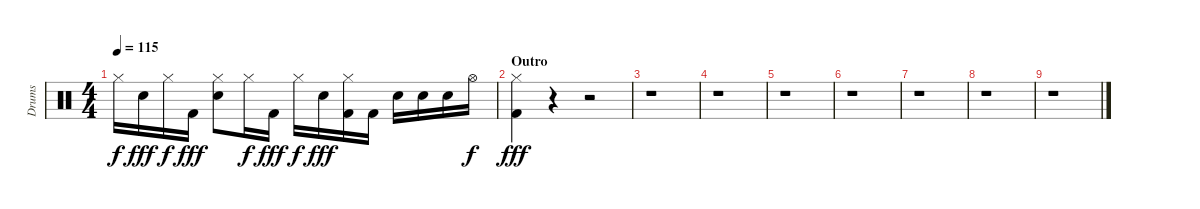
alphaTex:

\track ("Drums" "Drums") {instrument percussion}
\staff {score}
\articulation defaults
\ts (4 4)
\tempo 115
\clef neutral
\ks c "Hi-Hat (closed)".16{dy f} "Electric Snare (hit)".16{dy fff} "Hi-Hat (closed)".16{dy f} "Kick (hit) 2".16{dy fff}
("Hi-Hat (closed)" "Electric Snare (hit)").8 "Hi-Hat (closed)".16{dy f} "Kick (hit) 2".16{dy fff} "Hi-Hat (closed)".16{dy f} "Electric Snare (hit)".16{dy fff} ("Hi-Hat (closed)" "Kick (hit) 2").16 "Kick (hit) 2".16 "Electric Snare (hit)".16 "Electric Snare (hit)".16 "Electric Snare (hit)".16 "Hi-Hat (open)".16{dy f} |
\section ("" "Outro")
("Hi-Hat (closed)" "Kick (hit) 2").4{dy fff} r.4 r.2 |
r.1 |
r.1 |
r.1 |
r.1 |
r.1 |
r.1 |
r.1
